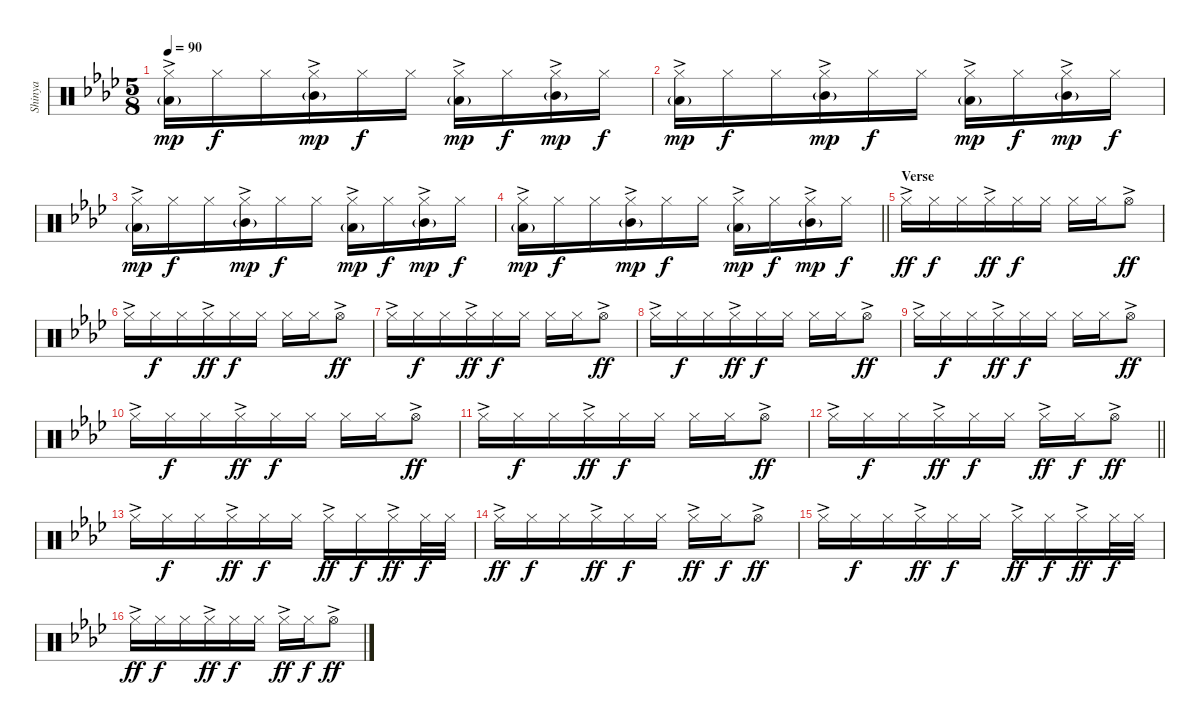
\track ("Shinya" "Shinya") {instrument percussion}
\staff {score}
\articulation defaults
\ts (5 8)
\tempo 90
\clef neutral
\ks fminor
("Hi-Hat (closed)"{ac} "Low Tom (hit)"{g}).16{dy mp} "Hi-Hat (closed)".16{dy f} "Hi-Hat (closed)".16 ("Hi-Hat (closed)"{ac} "Mid Tom (hit)"{g}).16{dy mp} "Hi-Hat (closed)".16{dy f} "Hi-Hat (closed)".16 ("Hi-Hat (closed)"{ac} "Low Tom (hit)"{g}).16{dy mp} "Hi-Hat (closed)".16{dy f} ("Hi-Hat (closed)"{ac} "Mid Tom (hit)"{g}).16{dy mp} "Hi-Hat (closed)".16{dy f} |
("Hi-Hat (closed)"{ac} "Low Tom (hit)"{g}).16{dy mp} "Hi-Hat (closed)".16{dy f} "Hi-Hat (closed)".16 ("Hi-Hat (closed)"{ac} "Mid Tom (hit)"{g}).16{dy mp} "Hi-Hat (closed)".16{dy f} "Hi-Hat (closed)".16 ("Hi-Hat (closed)"{ac} "Low Tom (hit)"{g}).16{dy mp} "Hi-Hat (closed)".16{dy f} ("Hi-Hat (closed)"{ac} "Mid Tom (hit)"{g}).16{dy mp} "Hi-Hat (closed)".16{dy f} |
("Hi-Hat (closed)"{ac} "Low Tom (hit)"{g}).16{dy mp} "Hi-Hat (closed)".16{dy f} "Hi-Hat (closed)".16 ("Hi-Hat (closed)"{ac} "Mid Tom (hit)"{g}).16{dy mp} "Hi-Hat (closed)".16{dy f} "Hi-Hat (closed)".16 ("Hi-Hat (closed)"{ac} "Low Tom (hit)"{g}).16{dy mp} "Hi-Hat (closed)".16{dy f} ("Hi-Hat (closed)"{ac} "Mid Tom (hit)"{g}).16{dy mp} "Hi-Hat (closed)".16{dy f} |
\barLineRight lightlight
("Hi-Hat (closed)"{ac} "Low Tom (hit)"{g}).16{dy mp} "Hi-Hat (closed)".16{dy f} "Hi-Hat (closed)".16 ("Hi-Hat (closed)"{ac} "Mid Tom (hit)"{g}).16{dy mp} "Hi-Hat (closed)".16{dy f} "Hi-Hat (closed)".16 ("Hi-Hat (closed)"{ac} "Low Tom (hit)"{g}).16{dy mp} "Hi-Hat (closed)".16{dy f} ("Hi-Hat (closed)"{ac} "Mid Tom (hit)"{g}).16{dy mp} "Hi-Hat (closed)".16{dy f} |
\section ("" "Verse")
"Hi-Hat (closed)"{ac}.16{dy ff} "Hi-Hat (closed)".16{dy f} "Hi-Hat (closed)".16 "Hi-Hat (closed)"{ac}.16{dy ff} "Hi-Hat (closed)".16{dy f} "Hi-Hat (closed)".16 "Hi-Hat (closed)".16 "Hi-Hat (closed)".16 "Hi-Hat (open)"{ac}.8{dy ff} |
"Hi-Hat (closed)"{ac}.16 "Hi-Hat (closed)".16{dy f} "Hi-Hat (closed)".16 "Hi-Hat (closed)"{ac}.16{dy ff} "Hi-Hat (closed)".16{dy f} "Hi-Hat (closed)".16 "Hi-Hat (closed)".16 "Hi-Hat (closed)".16 "Hi-Hat (open)"{ac}.8{dy ff} |
"Hi-Hat (closed)"{ac}.16 "Hi-Hat (closed)".16{dy f} "Hi-Hat (closed)".16 "Hi-Hat (closed)"{ac}.16{dy ff} "Hi-Hat (closed)".16{dy f} "Hi-Hat (closed)".16 "Hi-Hat (closed)".16 "Hi-Hat (closed)".16 "Hi-Hat (open)"{ac}.8{dy ff} |
"Hi-Hat (closed)"{ac}.16 "Hi-Hat (closed)".16{dy f} "Hi-Hat (closed)".16 "Hi-Hat (closed)"{ac}.16{dy ff} "Hi-Hat (closed)".16{dy f} "Hi-Hat (closed)".16 "Hi-Hat (closed)".16 "Hi-Hat (closed)".16 "Hi-Hat (open)"{ac}.8{dy ff} |
"Hi-Hat (closed)"{ac}.16 "Hi-Hat (closed)".16{dy f} "Hi-Hat (closed)".16 "Hi-Hat (closed)"{ac}.16{dy ff} "Hi-Hat (closed)".16{dy f} "Hi-Hat (closed)".16 "Hi-Hat (closed)".16 "Hi-Hat (closed)".16 "Hi-Hat (open)"{ac}.8{dy ff} |
"Hi-Hat (closed)"{ac}.16 "Hi-Hat (closed)".16{dy f} "Hi-Hat (closed)".16 "Hi-Hat (closed)"{ac}.16{dy ff} "Hi-Hat (closed)".16{dy f} "Hi-Hat (closed)".16 "Hi-Hat (closed)".16 "Hi-Hat (closed)".16 "Hi-Hat (open)"{ac}.8{dy ff} |
"Hi-Hat (closed)"{ac}.16 "Hi-Hat (closed)".16{dy f} "Hi-Hat (closed)".16 "Hi-Hat (closed)"{ac}.16{dy ff} "Hi-Hat (closed)".16{dy f} "Hi-Hat (closed)".16 "Hi-Hat (closed)".16 "Hi-Hat (closed)".16 "Hi-Hat (open)"{ac}.8{dy ff} |
\barLineRight lightlight "Hi-Hat (closed)"{ac}.16 "Hi-Hat (closed)".16{dy f} "Hi-Hat (closed)".16 "Hi-Hat (closed)"{ac}.16{dy ff} "Hi-Hat (closed)".16{dy f} "Hi-Hat (closed)".16 "Hi-Hat (closed)"{ac}.16{dy ff} "Hi-Hat (closed)".16{dy f} "Hi-Hat (open)"{ac}.8{dy ff}
|
"Hi-Hat (closed)"{ac}.16 "Hi-Hat (closed)".16{dy f} "Hi-Hat (closed)".16 "Hi-Hat (closed)"{ac}.16{dy ff} "Hi-Hat (closed)".16{dy f} "Hi-Hat (closed)".16 "Hi-Hat (closed)"{ac}.16{dy ff} "Hi-Hat (closed)".16{dy f} "Hi-Hat (closed)"{ac}.16{dy ff} "Hi-Hat (closed)".32{dy f} "Hi-Hat (closed)".32 |
"Hi-Hat (closed)"{ac}.16{dy ff} "Hi-Hat (closed)".16{dy f} "Hi-Hat (closed)".16 "Hi-Hat (closed)"{ac}.16{dy ff} "Hi-Hat (closed)".16{dy f} "Hi-Hat (closed)".16 "Hi-Hat (closed)"{ac}.16{dy ff} "Hi-Hat (closed)".16{dy f} "Hi-Hat (open)"{ac}.8{dy ff} |
"Hi-Hat (closed)"{ac}.16 "Hi-Hat (closed)".16{dy f} "Hi-Hat (closed)".16 "Hi-Hat (closed)"{ac}.16{dy ff} "Hi-Hat (closed)".16{dy f} "Hi-Hat (closed)".16 "Hi-Hat (closed)"{ac}.16{dy ff} "Hi-Hat (closed)".16{dy f} "Hi-Hat (closed)"{ac}.16{dy ff} "Hi-Hat (closed)".32{dy f} "Hi-Hat (closed)".32 |
"Hi-Hat (closed)"{ac}.16{dy ff} "Hi-Hat (closed)".16{dy f} "Hi-Hat (closed)".16 "Hi-Hat (closed)"{ac}.16{dy ff} "Hi-Hat (closed)".16{dy f} "Hi-Hat (closed)".16 "Hi-Hat (closed)"{ac}.16{dy ff} "Hi-Hat (closed)".16{dy f} "Hi-Hat (open)"{ac}.8{dy ff}
